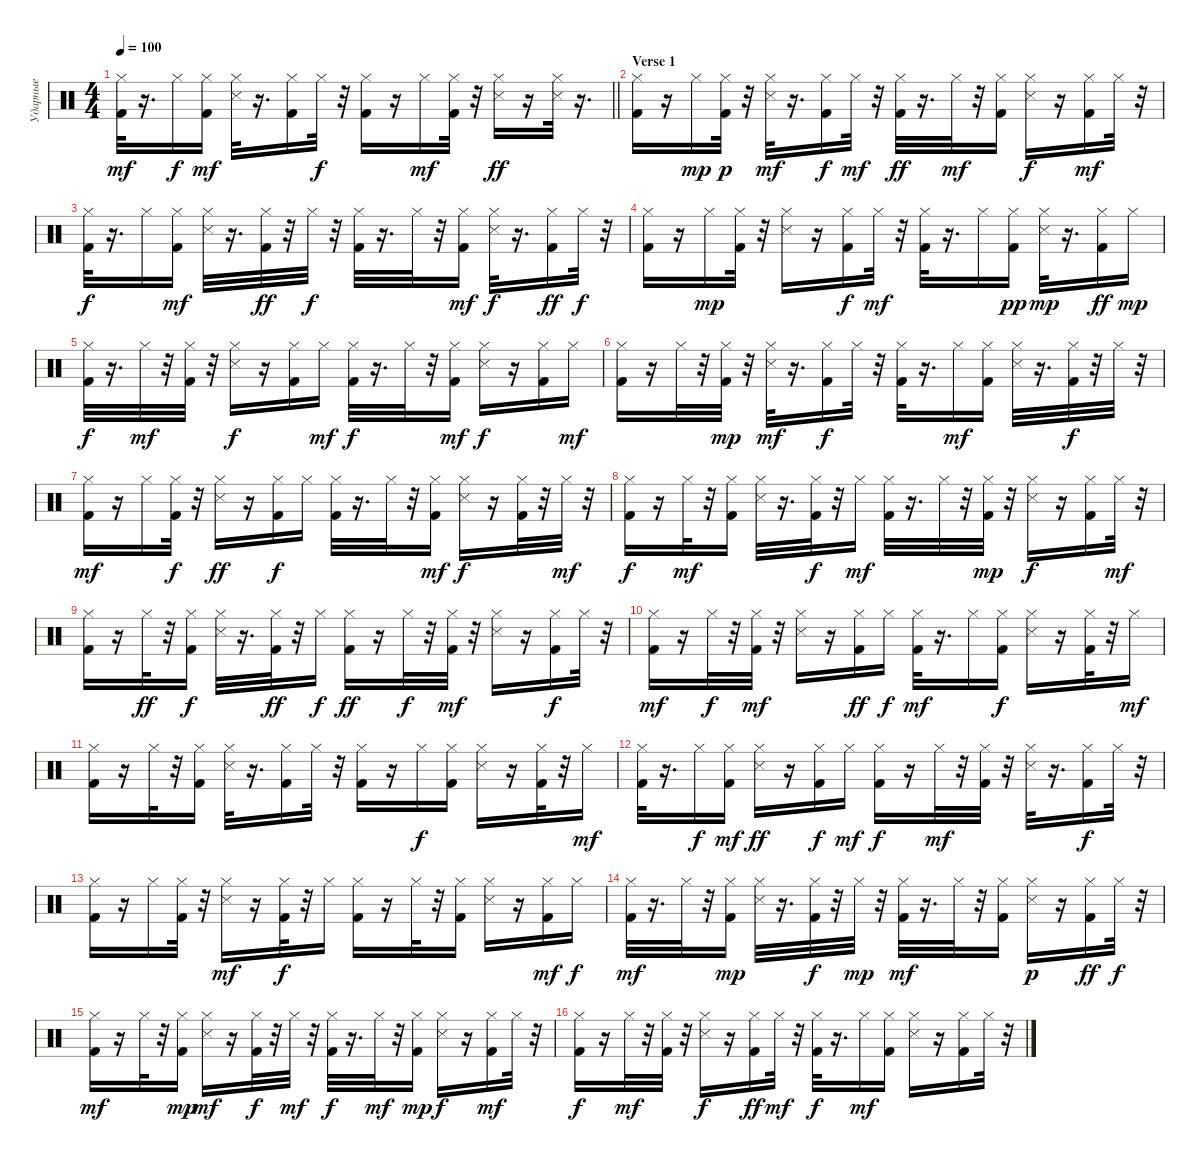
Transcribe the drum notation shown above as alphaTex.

\track ("Ударные" "Ударные") {instrument percussion}
\staff {score}
\articulation defaults
\ts (4 4)
\tempo 100
\clef neutral
\barLineRight lightlight
\ks c
("Hi-Hat (closed)" "Kick (hit) 2").32{dy mf} r.16{d} "Hi-Hat (closed)".16{dy f} ("Kick (hit) 2" "Hi-Hat (closed)").16{dy mf} ("Hi-Hat (closed)" "Snare (side stick) 3").32 r.16{d} ("Kick (hit) 2" "Hi-Hat (closed)").16 "Hi-Hat (closed)".32{dy f} r.32 ("Hi-Hat (closed)" "Kick (hit) 2").16 r.16 "Hi-Hat (closed)".16{dy mf} ("Hi-Hat (closed)" "Kick (hit) 2").32 r.32 ("Hi-Hat (closed)" "Snare (side stick) 3").16{dy ff} r.16 ("Hi-Hat (closed)" "Snare (side stick) 3").32 r.16{d} |
\section ("" "Verse 1")
("Hi-Hat (closed)" "Kick (hit) 2").16 r.16 "Hi-Hat (closed)".16{dy mp} ("Kick (hit) 2" "Hi-Hat (closed)").32{dy p} r.32 ("Hi-Hat (closed)" "Snare (side stick) 3").32{dy mf} r.16{d} ("Kick (hit) 2" "Hi-Hat (closed)").16{dy f} "Hi-Hat (closed)".32{dy mf} r.32 ("Hi-Hat (closed)" "Kick (hit) 2").32{dy ff} r.16{d} "Hi-Hat (closed)".32{dy mf} r.32 ("Hi-Hat (closed)" "Kick (hit) 2").16 ("Hi-Hat (closed)" "Snare (side stick) 3").16{dy f} r.16 ("Kick (hit) 2" "Hi-Hat (closed)").16{dy mf} "Hi-Hat (closed)".32 r.32 |
("Hi-Hat (closed)" "Kick (hit) 2").32{dy f} r.16{d} "Hi-Hat (closed)".16 ("Kick (hit) 2" "Hi-Hat (closed)").16{dy mf} ("Hi-Hat (closed)" "Snare (side stick) 3").32 r.16{d} ("Hi-Hat (closed)" "Kick (hit) 2").32{dy ff} r.32 "Hi-Hat (closed)".32{dy f} r.32 ("Kick (hit) 2" "Hi-Hat (closed)").32 r.16{d} "Hi-Hat (closed)".32 r.32 ("Hi-Hat (closed)" "Kick (hit) 2").16{dy mf} ("Hi-Hat (closed)" "Snare (side stick) 3").32{dy f} r.16{d} ("Hi-Hat (closed)" "Kick (hit) 2").16{dy ff} "Hi-Hat (closed)".32{dy f} r.32 |
("Kick (hit) 2" "Hi-Hat (closed)").16 r.16 "Hi-Hat (closed)".16{dy mp} ("Kick (hit) 2" "Hi-Hat (closed)").32 r.32 ("Hi-Hat (closed)" "Snare (side stick) 3").16 r.16 ("Kick (hit) 2" "Hi-Hat (closed)").16{dy f} "Hi-Hat (closed)".32{dy mf} r.32 ("Kick (hit) 2" "Hi-Hat (closed)").32 r.16{d} "Hi-Hat (closed)".16 ("Kick (hit) 2" "Hi-Hat (closed)").16{dy pp} ("Hi-Hat (closed)" "Snare (side stick) 3").32{dy mp} r.16{d} ("Kick (hit) 2" "Hi-Hat (closed)").16{dy ff} "Hi-Hat (closed)".16{dy mp} |
("Kick (hit) 2" "Hi-Hat (closed)").32{dy f} r.16{d} "Hi-Hat (closed)".32{dy mf} r.32 ("Hi-Hat (closed)" "Kick (hit) 2").32 r.32 ("Hi-Hat (closed)" "Snare (side stick) 3").16{dy f} r.16 ("Kick (hit) 2" "Hi-Hat (closed)").16 "Hi-Hat (closed)".16{dy mf} ("Kick (hit) 2" "Hi-Hat (closed)").32{dy f} r.16{d} "Hi-Hat (closed)".32 r.32 ("Kick (hit) 2" "Hi-Hat (closed)").16{dy mf} ("Hi-Hat (closed)" "Snare (side stick) 3").16{dy f} r.16 ("Hi-Hat (closed)" "Kick (hit) 2").16 "Hi-Hat (closed)".16{dy mf} |
("Hi-Hat (closed)" "Kick (hit) 2").16 r.16 "Hi-Hat (closed)".32 r.32 ("Kick (hit) 2" "Hi-Hat (closed)").32{dy mp} r.32 ("Hi-Hat (closed)" "Snare (side stick) 3").32{dy mf} r.16{d} ("Hi-Hat (closed)" "Kick (hit) 2").16{dy f} "Hi-Hat (closed)".32 r.32 ("Hi-Hat (closed)" "Kick (hit) 2").32 r.16{d} "Hi-Hat (closed)".16{dy mf} ("Kick (hit) 2" "Hi-Hat (closed)").16 ("Hi-Hat (closed)" "Snare (side stick) 3").32 r.16{d} ("Hi-Hat (closed)" "Kick (hit) 2").32{dy f} r.32 "Hi-Hat (closed)".32 r.32 |
("Hi-Hat (closed)" "Kick (hit) 2").16{dy mf} r.16 "Hi-Hat (closed)".16 ("Kick (hit) 2" "Hi-Hat (closed)").32{dy f} r.32 ("Hi-Hat (closed)" "Snare (side stick) 3").16{dy ff} r.16 ("Kick (hit) 2" "Hi-Hat (closed)").16{dy f} "Hi-Hat (closed)".16 ("Hi-Hat (closed)" "Kick (hit) 2").32 r.16{d} "Hi-Hat (closed)".32 r.32 ("Kick (hit) 2" "Hi-Hat (closed)").16{dy mf} ("Snare (side stick) 3" "Hi-Hat (closed)").16{dy f} r.16 ("Kick (hit) 2" "Hi-Hat (closed)").32 r.32 "Hi-Hat (closed)".32{dy mf} r.32 |
("Hi-Hat (closed)" "Kick (hit) 2").16{dy f} r.16 "Hi-Hat (closed)".32{dy mf} r.32 ("Hi-Hat (closed)" "Kick (hit) 2").16 ("Hi-Hat (closed)" "Snare (side stick) 3").32 r.16{d} ("Kick (hit) 2" "Hi-Hat (closed)").32{dy f} r.32 "Hi-Hat (closed)".16{dy mf} ("Kick (hit) 2" "Hi-Hat (closed)").32 r.16{d} "Hi-Hat (closed)".32 r.32 ("Kick (hit) 2" "Hi-Hat (closed)").32{dy mp} r.32 ("Hi-Hat (closed)" "Snare (side stick) 3").16{dy f} r.16 ("Kick (hit) 2" "Hi-Hat (closed)").16 "Hi-Hat (closed)".32{dy mf} r.32 |
("Kick (hit) 2" "Hi-Hat (closed)").16 r.16 "Hi-Hat (closed)".32{dy ff} r.32 ("Hi-Hat (closed)" "Kick (hit) 2").16{dy f} ("Hi-Hat (closed)" "Snare (side stick) 3").32 r.16{d} ("Hi-Hat (closed)" "Kick (hit) 2").32{dy ff} r.32 "Hi-Hat (closed)".16{dy f} ("Kick (hit) 2" "Hi-Hat (closed)").16{dy ff} r.16 "Hi-Hat (closed)".32{dy f} r.32 ("Kick (hit) 2" "Hi-Hat (closed)").32{dy mf} r.32 ("Hi-Hat (closed)" "Snare (side stick) 3").16 r.16 ("Kick (hit) 2" "Hi-Hat (closed)").16{dy f} "Hi-Hat (closed)".32 r.32 |
("Kick (hit) 2" "Hi-Hat (closed)").16{dy mf} r.16 "Hi-Hat (closed)".32{dy f} r.32 ("Hi-Hat (closed)" "Kick (hit) 2").32{dy mf} r.32 ("Hi-Hat (closed)" "Snare (side stick) 3").16 r.16 ("Hi-Hat (closed)" "Kick (hit) 2").16{dy ff} "Hi-Hat (closed)".16{dy f} ("Hi-Hat (closed)" "Kick (hit) 2").32{dy mf} r.16{d} "Hi-Hat (closed)".16 ("Kick (hit) 2" "Hi-Hat (closed)").16{dy f} ("Hi-Hat (closed)" "Snare (side stick) 3").16 r.16 ("Kick (hit) 2" "Hi-Hat (closed)").32 r.32 "Hi-Hat (closed)".16{dy mf} |
("Hi-Hat (closed)" "Kick (hit) 2").16 r.16 "Hi-Hat (closed)".32 r.32 ("Kick (hit) 2" "Hi-Hat (closed)").16 ("Hi-Hat (closed)" "Snare (side stick) 3").32 r.16{d} ("Kick (hit) 2" "Hi-Hat (closed)").16 "Hi-Hat (closed)".32 r.32 ("Kick (hit) 2" "Hi-Hat (closed)").16 r.16 "Hi-Hat (closed)".16{dy f} ("Hi-Hat (closed)" "Kick (hit) 2").16 ("Hi-Hat (closed)" "Snare (side stick) 3").16 r.16 ("Kick (hit) 2" "Hi-Hat (closed)").32 r.32 "Hi-Hat (closed)".16{dy mf} |
("Kick (hit) 2" "Hi-Hat (closed)").32 r.16{d} "Hi-Hat (closed)".16{dy f} ("Kick (hit) 2" "Hi-Hat (closed)").16{dy mf} ("Hi-Hat (closed)" "Snare (side stick) 3").16{dy ff} r.16 ("Kick (hit) 2" "Hi-Hat (closed)").16{dy f} "Hi-Hat (closed)".16{dy mf} ("Hi-Hat (closed)" "Kick (hit) 2").16{dy f} r.16 "Hi-Hat (closed)".32{dy mf} r.32 ("Kick (hit) 2" "Hi-Hat (closed)").32 r.32 ("Hi-Hat (closed)" "Snare (side stick) 3").32 r.16{d} ("Kick (hit) 2" "Hi-Hat (closed)").16{dy f} "Hi-Hat (closed)".32 r.32 |
("Hi-Hat (closed)" "Kick (hit) 2").16 r.16 "Hi-Hat (closed)".16 ("Kick (hit) 2" "Hi-Hat (closed)").32 r.32 ("Hi-Hat (closed)" "Snare (side stick) 3").16{dy mf} r.16 ("Kick (hit) 2" "Hi-Hat (closed)").32{dy f} r.32 "Hi-Hat (closed)".16 ("Kick (hit) 2" "Hi-Hat (closed)").16 r.16 "Hi-Hat (closed)".32 r.32 ("Hi-Hat (closed)" "Kick (hit) 2").16 ("Hi-Hat (closed)" "Snare (side stick) 3").16 r.16 ("Hi-Hat (closed)" "Kick (hit) 2").16{dy mf} "Hi-Hat (closed)".16{dy f} |
("Kick (hit) 2" "Hi-Hat (closed)").32{dy mf} r.16{d} "Hi-Hat (closed)".32 r.32 ("Hi-Hat (closed)" "Kick (hit) 2").16{dy mp} ("Hi-Hat (closed)" "Snare (side stick) 3").32 r.16{d} ("Hi-Hat (closed)" "Kick (hit) 2").32{dy f} r.32 "Hi-Hat (closed)".32{dy mp} r.32 ("Kick (hit) 2" "Hi-Hat (closed)").32{dy mf} r.16{d} "Hi-Hat (closed)".32 r.32 ("Kick (hit) 2" "Hi-Hat (closed)").16 ("Hi-Hat (closed)" "Snare (side stick) 3").16{dy p} r.16 ("Hi-Hat (closed)" "Kick (hit) 2").16{dy ff} "Hi-Hat (closed)".32{dy f} r.32 |
("Hi-Hat (closed)" "Kick (hit) 2").16{dy mf} r.16 "Hi-Hat (closed)".32 r.32 ("Kick (hit) 2" "Hi-Hat (closed)").16{dy mp} ("Hi-Hat (closed)" "Snare (side stick) 3").16{dy mf} r.16 ("Kick (hit) 2" "Hi-Hat (closed)").32{dy f} r.32 "Hi-Hat (closed)".32{dy mf} r.32 ("Kick (hit) 2" "Hi-Hat (closed)").32{dy f} r.16{d} "Hi-Hat (closed)".32{dy mf} r.32 ("Kick (hit) 2" "Hi-Hat (closed)").16{dy mp} ("Hi-Hat (closed)" "Snare (side stick) 3").16{dy f} r.16 ("Hi-Hat (closed)" "Kick (hit) 2").16{dy mf} "Hi-Hat (closed)".32 r.32 |
("Hi-Hat (closed)" "Kick (hit) 2").16{dy f} r.16 "Hi-Hat (closed)".32{dy mf} r.32 ("Kick (hit) 2" "Hi-Hat (closed)").32 r.32 ("Hi-Hat (closed)" "Snare (side stick) 3").16{dy f} r.16 ("Kick (hit) 2" "Hi-Hat (closed)").16{dy ff} "Hi-Hat (closed)".32{dy mf} r.32 ("Kick (hit) 2" "Hi-Hat (closed)").32{dy f} r.16{d} "Hi-Hat (closed)".16{dy mf} ("Kick (hit) 2" "Hi-Hat (closed)").16 ("Snare (side stick) 3" "Hi-Hat (closed)").16 r.16 ("Hi-Hat (closed)" "Kick (hit) 2").16 "Hi-Hat (closed)".32 r.32
